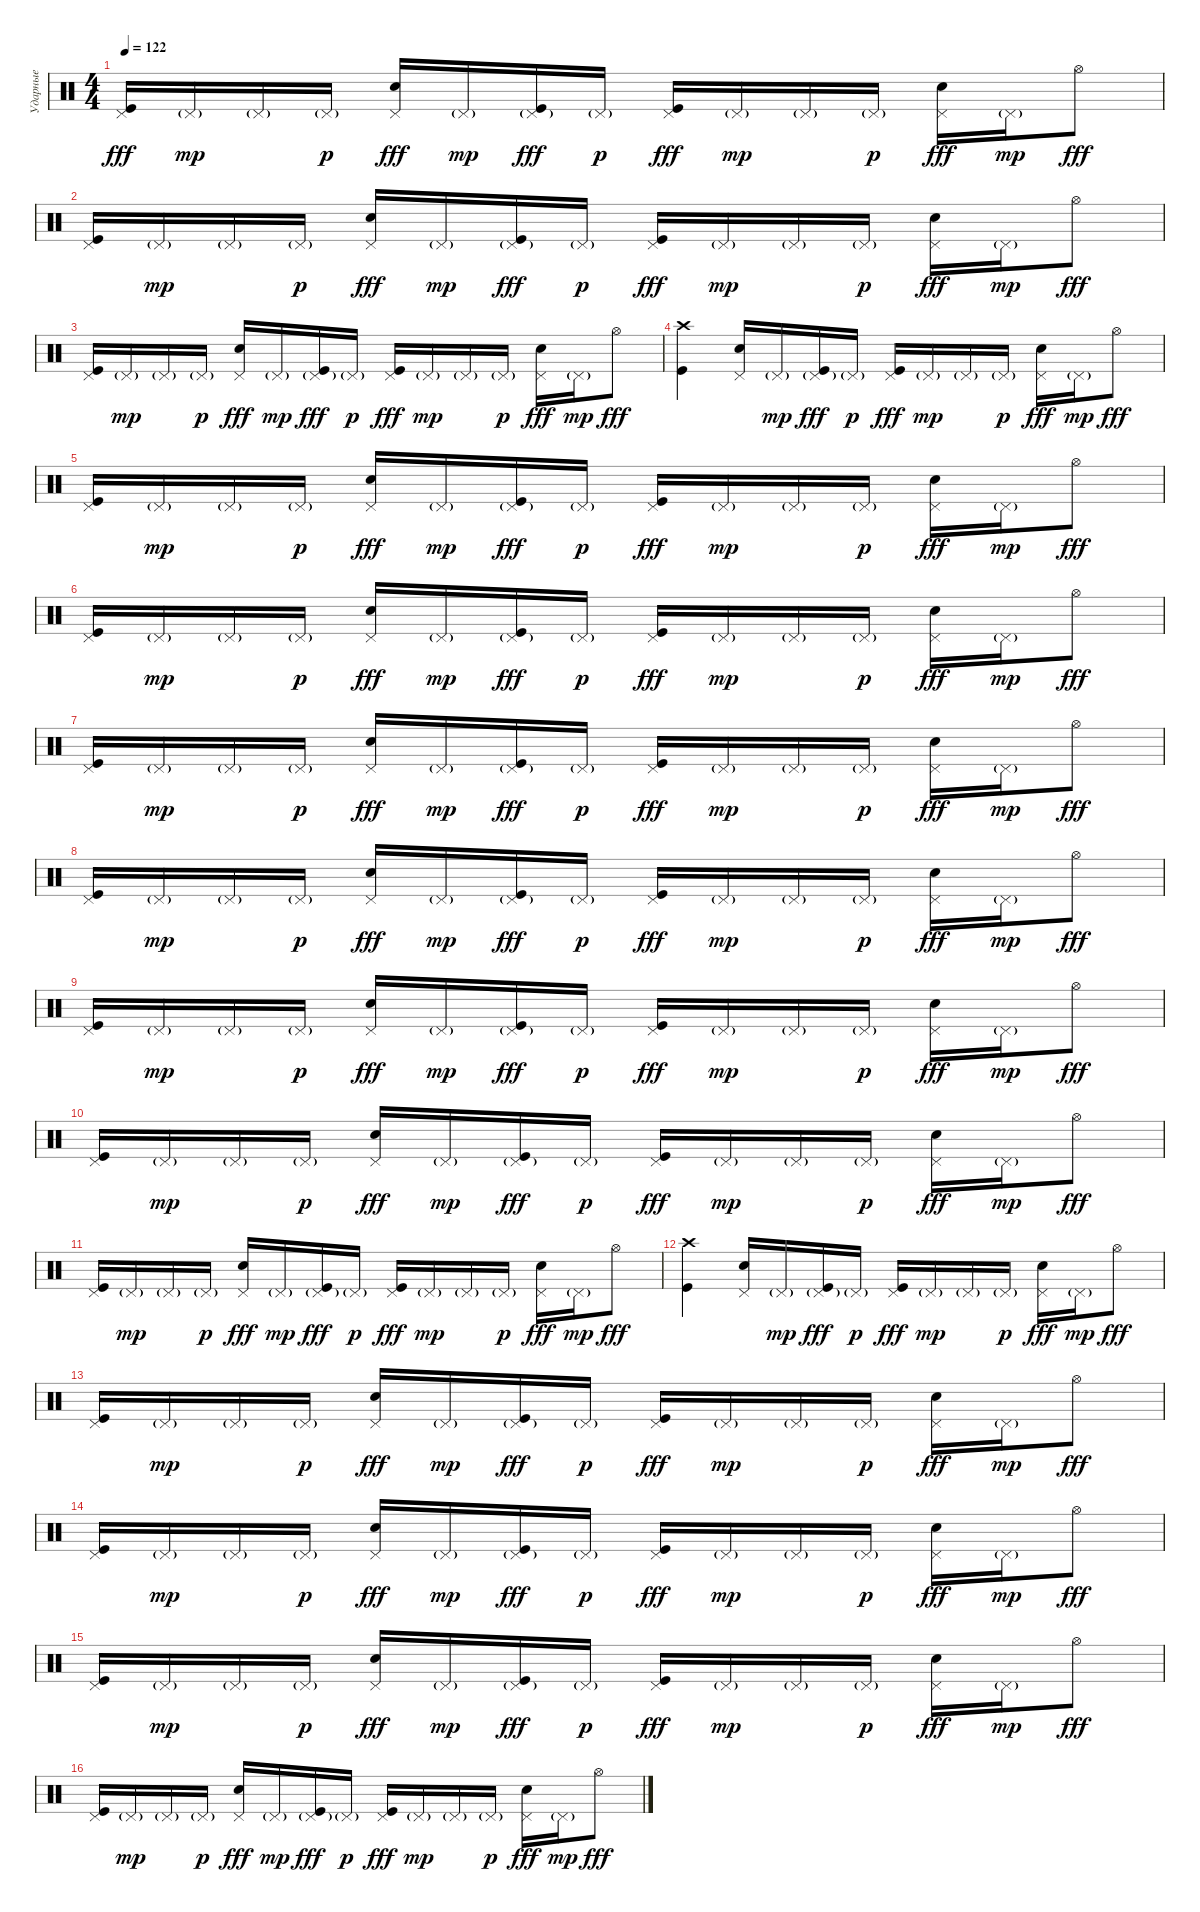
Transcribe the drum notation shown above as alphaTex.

\track ("Ударные" "Ударные") {instrument percussion}
\staff {score}
\articulation defaults
\ts (4 4)
\tempo 122
\clef neutral
\ks c
("Pedal Hi-Hat (hit)" "Kick (hit)").16{dy fff} "Pedal Hi-Hat (hit)"{g}.16{dy mp} "Pedal Hi-Hat (hit)"{g}.16 "Pedal Hi-Hat (hit)"{g}.16{dy p} ("Pedal Hi-Hat (hit)" "Electric Snare (hit)").16{dy fff} "Pedal Hi-Hat (hit)"{g}.16{dy mp} ("Pedal Hi-Hat (hit)"{g} "Kick (hit)").16{dy fff} "Pedal Hi-Hat (hit)"{g}.16{dy p} ("Pedal Hi-Hat (hit)" "Kick (hit)").16{dy fff} "Pedal Hi-Hat (hit)"{g}.16{dy mp} "Pedal Hi-Hat (hit)"{g}.16 "Pedal Hi-Hat (hit)"{g}.16{dy p} ("Pedal Hi-Hat (hit)" "Electric Snare (hit)").16{dy fff} "Pedal Hi-Hat (hit)"{g}.16{dy mp} "Hi-Hat (open)".8{dy fff} |
("Pedal Hi-Hat (hit)" "Kick (hit)").16 "Pedal Hi-Hat (hit)"{g}.16{dy mp} "Pedal Hi-Hat (hit)"{g}.16 "Pedal Hi-Hat (hit)"{g}.16{dy p} ("Pedal Hi-Hat (hit)" "Electric Snare (hit)").16{dy fff} "Pedal Hi-Hat (hit)"{g}.16{dy mp} ("Pedal Hi-Hat (hit)"{g} "Kick (hit)").16{dy fff} "Pedal Hi-Hat (hit)"{g}.16{dy p} ("Pedal Hi-Hat (hit)" "Kick (hit)").16{dy fff} "Pedal Hi-Hat (hit)"{g}.16{dy mp} "Pedal Hi-Hat (hit)"{g}.16 "Pedal Hi-Hat (hit)"{g}.16{dy p} ("Pedal Hi-Hat (hit)" "Electric Snare (hit)").16{dy fff} "Pedal Hi-Hat (hit)"{g}.16{dy mp} "Hi-Hat (open)".8{dy fff} |
("Pedal Hi-Hat (hit)" "Kick (hit)").16 "Pedal Hi-Hat (hit)"{g}.16{dy mp} "Pedal Hi-Hat (hit)"{g}.16 "Pedal Hi-Hat (hit)"{g}.16{dy p} ("Pedal Hi-Hat (hit)" "Electric Snare (hit)").16{dy fff} "Pedal Hi-Hat (hit)"{g}.16{dy mp} ("Pedal Hi-Hat (hit)"{g} "Kick (hit)").16{dy fff} "Pedal Hi-Hat (hit)"{g}.16{dy p} ("Pedal Hi-Hat (hit)" "Kick (hit)").16{dy fff} "Pedal Hi-Hat (hit)"{g}.16{dy mp} "Pedal Hi-Hat (hit)"{g}.16 "Pedal Hi-Hat (hit)"{g}.16{dy p} ("Pedal Hi-Hat (hit)" "Electric Snare (hit)").16{dy fff} "Pedal Hi-Hat (hit)"{g}.16{dy mp} "Hi-Hat (open)".8{dy fff} |
("Crash high (hit)" "Kick (hit)").4 ("Pedal Hi-Hat (hit)" "Electric Snare (hit)").16 "Pedal Hi-Hat (hit)"{g}.16{dy mp} ("Pedal Hi-Hat (hit)"{g} "Kick (hit)").16{dy fff} "Pedal Hi-Hat (hit)"{g}.16{dy p} ("Pedal Hi-Hat (hit)" "Kick (hit)").16{dy fff} "Pedal Hi-Hat (hit)"{g}.16{dy mp} "Pedal Hi-Hat (hit)"{g}.16 "Pedal Hi-Hat (hit)"{g}.16{dy p} ("Pedal Hi-Hat (hit)" "Electric Snare (hit)").16{dy fff} "Pedal Hi-Hat (hit)"{g}.16{dy mp} "Hi-Hat (open)".8{dy fff} |
("Pedal Hi-Hat (hit)" "Kick (hit)").16 "Pedal Hi-Hat (hit)"{g}.16{dy mp} "Pedal Hi-Hat (hit)"{g}.16 "Pedal Hi-Hat (hit)"{g}.16{dy p} ("Pedal Hi-Hat (hit)" "Electric Snare (hit)").16{dy fff} "Pedal Hi-Hat (hit)"{g}.16{dy mp} ("Pedal Hi-Hat (hit)"{g} "Kick (hit)").16{dy fff} "Pedal Hi-Hat (hit)"{g}.16{dy p} ("Pedal Hi-Hat (hit)" "Kick (hit)").16{dy fff} "Pedal Hi-Hat (hit)"{g}.16{dy mp} "Pedal Hi-Hat (hit)"{g}.16 "Pedal Hi-Hat (hit)"{g}.16{dy p} ("Pedal Hi-Hat (hit)" "Electric Snare (hit)").16{dy fff} "Pedal Hi-Hat (hit)"{g}.16{dy mp} "Hi-Hat (open)".8{dy fff} |
("Pedal Hi-Hat (hit)" "Kick (hit)").16 "Pedal Hi-Hat (hit)"{g}.16{dy mp} "Pedal Hi-Hat (hit)"{g}.16 "Pedal Hi-Hat (hit)"{g}.16{dy p} ("Pedal Hi-Hat (hit)" "Electric Snare (hit)").16{dy fff} "Pedal Hi-Hat (hit)"{g}.16{dy mp} ("Pedal Hi-Hat (hit)"{g} "Kick (hit)").16{dy fff} "Pedal Hi-Hat (hit)"{g}.16{dy p} ("Pedal Hi-Hat (hit)" "Kick (hit)").16{dy fff} "Pedal Hi-Hat (hit)"{g}.16{dy mp} "Pedal Hi-Hat (hit)"{g}.16 "Pedal Hi-Hat (hit)"{g}.16{dy p} ("Pedal Hi-Hat (hit)" "Electric Snare (hit)").16{dy fff} "Pedal Hi-Hat (hit)"{g}.16{dy mp} "Hi-Hat (open)".8{dy fff} |
("Pedal Hi-Hat (hit)" "Kick (hit)").16 "Pedal Hi-Hat (hit)"{g}.16{dy mp} "Pedal Hi-Hat (hit)"{g}.16 "Pedal Hi-Hat (hit)"{g}.16{dy p} ("Pedal Hi-Hat (hit)" "Electric Snare (hit)").16{dy fff} "Pedal Hi-Hat (hit)"{g}.16{dy mp} ("Pedal Hi-Hat (hit)"{g} "Kick (hit)").16{dy fff} "Pedal Hi-Hat (hit)"{g}.16{dy p} ("Pedal Hi-Hat (hit)" "Kick (hit)").16{dy fff} "Pedal Hi-Hat (hit)"{g}.16{dy mp} "Pedal Hi-Hat (hit)"{g}.16 "Pedal Hi-Hat (hit)"{g}.16{dy p} ("Pedal Hi-Hat (hit)" "Electric Snare (hit)").16{dy fff} "Pedal Hi-Hat (hit)"{g}.16{dy mp} "Hi-Hat (open)".8{dy fff} |
("Pedal Hi-Hat (hit)" "Kick (hit)").16 "Pedal Hi-Hat (hit)"{g}.16{dy mp} "Pedal Hi-Hat (hit)"{g}.16 "Pedal Hi-Hat (hit)"{g}.16{dy p} ("Pedal Hi-Hat (hit)" "Electric Snare (hit)").16{dy fff} "Pedal Hi-Hat (hit)"{g}.16{dy mp} ("Pedal Hi-Hat (hit)"{g} "Kick (hit)").16{dy fff} "Pedal Hi-Hat (hit)"{g}.16{dy p} ("Pedal Hi-Hat (hit)" "Kick (hit)").16{dy fff} "Pedal Hi-Hat (hit)"{g}.16{dy mp} "Pedal Hi-Hat (hit)"{g}.16 "Pedal Hi-Hat (hit)"{g}.16{dy p} ("Pedal Hi-Hat (hit)" "Electric Snare (hit)").16{dy fff} "Pedal Hi-Hat (hit)"{g}.16{dy mp} "Hi-Hat (open)".8{dy fff} |
("Pedal Hi-Hat (hit)" "Kick (hit)").16 "Pedal Hi-Hat (hit)"{g}.16{dy mp} "Pedal Hi-Hat (hit)"{g}.16 "Pedal Hi-Hat (hit)"{g}.16{dy p} ("Pedal Hi-Hat (hit)" "Electric Snare (hit)").16{dy fff} "Pedal Hi-Hat (hit)"{g}.16{dy mp} ("Pedal Hi-Hat (hit)"{g} "Kick (hit)").16{dy fff} "Pedal Hi-Hat (hit)"{g}.16{dy p} ("Pedal Hi-Hat (hit)" "Kick (hit)").16{dy fff} "Pedal Hi-Hat (hit)"{g}.16{dy mp} "Pedal Hi-Hat (hit)"{g}.16 "Pedal Hi-Hat (hit)"{g}.16{dy p} ("Pedal Hi-Hat (hit)" "Electric Snare (hit)").16{dy fff} "Pedal Hi-Hat (hit)"{g}.16{dy mp} "Hi-Hat (open)".8{dy fff} |
("Pedal Hi-Hat (hit)" "Kick (hit)").16 "Pedal Hi-Hat (hit)"{g}.16{dy mp} "Pedal Hi-Hat (hit)"{g}.16 "Pedal Hi-Hat (hit)"{g}.16{dy p} ("Pedal Hi-Hat (hit)" "Electric Snare (hit)").16{dy fff} "Pedal Hi-Hat (hit)"{g}.16{dy mp} ("Pedal Hi-Hat (hit)"{g} "Kick (hit)").16{dy fff} "Pedal Hi-Hat (hit)"{g}.16{dy p} ("Pedal Hi-Hat (hit)" "Kick (hit)").16{dy fff} "Pedal Hi-Hat (hit)"{g}.16{dy mp} "Pedal Hi-Hat (hit)"{g}.16 "Pedal Hi-Hat (hit)"{g}.16{dy p} ("Pedal Hi-Hat (hit)" "Electric Snare (hit)").16{dy fff} "Pedal Hi-Hat (hit)"{g}.16{dy mp} "Hi-Hat (open)".8{dy fff} |
("Pedal Hi-Hat (hit)" "Kick (hit)").16 "Pedal Hi-Hat (hit)"{g}.16{dy mp} "Pedal Hi-Hat (hit)"{g}.16 "Pedal Hi-Hat (hit)"{g}.16{dy p} ("Pedal Hi-Hat (hit)" "Electric Snare (hit)").16{dy fff} "Pedal Hi-Hat (hit)"{g}.16{dy mp} ("Pedal Hi-Hat (hit)"{g} "Kick (hit)").16{dy fff} "Pedal Hi-Hat (hit)"{g}.16{dy p} ("Pedal Hi-Hat (hit)" "Kick (hit)").16{dy fff} "Pedal Hi-Hat (hit)"{g}.16{dy mp} "Pedal Hi-Hat (hit)"{g}.16 "Pedal Hi-Hat (hit)"{g}.16{dy p} ("Pedal Hi-Hat (hit)" "Electric Snare (hit)").16{dy fff} "Pedal Hi-Hat (hit)"{g}.16{dy mp} "Hi-Hat (open)".8{dy fff} |
("Crash high (hit)" "Kick (hit)").4 ("Pedal Hi-Hat (hit)" "Electric Snare (hit)").16 "Pedal Hi-Hat (hit)"{g}.16{dy mp} ("Pedal Hi-Hat (hit)"{g} "Kick (hit)").16{dy fff} "Pedal Hi-Hat (hit)"{g}.16{dy p} ("Pedal Hi-Hat (hit)" "Kick (hit)").16{dy fff} "Pedal Hi-Hat (hit)"{g}.16{dy mp} "Pedal Hi-Hat (hit)"{g}.16 "Pedal Hi-Hat (hit)"{g}.16{dy p} ("Pedal Hi-Hat (hit)" "Electric Snare (hit)").16{dy fff} "Pedal Hi-Hat (hit)"{g}.16{dy mp} "Hi-Hat (open)".8{dy fff} |
("Pedal Hi-Hat (hit)" "Kick (hit)").16 "Pedal Hi-Hat (hit)"{g}.16{dy mp} "Pedal Hi-Hat (hit)"{g}.16 "Pedal Hi-Hat (hit)"{g}.16{dy p} ("Pedal Hi-Hat (hit)" "Electric Snare (hit)").16{dy fff} "Pedal Hi-Hat (hit)"{g}.16{dy mp} ("Pedal Hi-Hat (hit)"{g} "Kick (hit)").16{dy fff} "Pedal Hi-Hat (hit)"{g}.16{dy p} ("Pedal Hi-Hat (hit)" "Kick (hit)").16{dy fff} "Pedal Hi-Hat (hit)"{g}.16{dy mp} "Pedal Hi-Hat (hit)"{g}.16 "Pedal Hi-Hat (hit)"{g}.16{dy p} ("Pedal Hi-Hat (hit)" "Electric Snare (hit)").16{dy fff} "Pedal Hi-Hat (hit)"{g}.16{dy mp} "Hi-Hat (open)".8{dy fff} |
("Pedal Hi-Hat (hit)" "Kick (hit)").16 "Pedal Hi-Hat (hit)"{g}.16{dy mp} "Pedal Hi-Hat (hit)"{g}.16 "Pedal Hi-Hat (hit)"{g}.16{dy p} ("Pedal Hi-Hat (hit)" "Electric Snare (hit)").16{dy fff} "Pedal Hi-Hat (hit)"{g}.16{dy mp} ("Pedal Hi-Hat (hit)"{g} "Kick (hit)").16{dy fff} "Pedal Hi-Hat (hit)"{g}.16{dy p} ("Pedal Hi-Hat (hit)" "Kick (hit)").16{dy fff} "Pedal Hi-Hat (hit)"{g}.16{dy mp} "Pedal Hi-Hat (hit)"{g}.16 "Pedal Hi-Hat (hit)"{g}.16{dy p} ("Pedal Hi-Hat (hit)" "Electric Snare (hit)").16{dy fff} "Pedal Hi-Hat (hit)"{g}.16{dy mp} "Hi-Hat (open)".8{dy fff} |
("Pedal Hi-Hat (hit)" "Kick (hit)").16 "Pedal Hi-Hat (hit)"{g}.16{dy mp} "Pedal Hi-Hat (hit)"{g}.16 "Pedal Hi-Hat (hit)"{g}.16{dy p} ("Pedal Hi-Hat (hit)" "Electric Snare (hit)").16{dy fff} "Pedal Hi-Hat (hit)"{g}.16{dy mp} ("Pedal Hi-Hat (hit)"{g} "Kick (hit)").16{dy fff} "Pedal Hi-Hat (hit)"{g}.16{dy p} ("Pedal Hi-Hat (hit)" "Kick (hit)").16{dy fff} "Pedal Hi-Hat (hit)"{g}.16{dy mp} "Pedal Hi-Hat (hit)"{g}.16 "Pedal Hi-Hat (hit)"{g}.16{dy p} ("Pedal Hi-Hat (hit)" "Electric Snare (hit)").16{dy fff} "Pedal Hi-Hat (hit)"{g}.16{dy mp} "Hi-Hat (open)".8{dy fff} |
("Pedal Hi-Hat (hit)" "Kick (hit)").16 "Pedal Hi-Hat (hit)"{g}.16{dy mp} "Pedal Hi-Hat (hit)"{g}.16 "Pedal Hi-Hat (hit)"{g}.16{dy p} ("Pedal Hi-Hat (hit)" "Electric Snare (hit)").16{dy fff} "Pedal Hi-Hat (hit)"{g}.16{dy mp} ("Pedal Hi-Hat (hit)"{g} "Kick (hit)").16{dy fff} "Pedal Hi-Hat (hit)"{g}.16{dy p} ("Pedal Hi-Hat (hit)" "Kick (hit)").16{dy fff} "Pedal Hi-Hat (hit)"{g}.16{dy mp} "Pedal Hi-Hat (hit)"{g}.16 "Pedal Hi-Hat (hit)"{g}.16{dy p} ("Pedal Hi-Hat (hit)" "Electric Snare (hit)").16{dy fff} "Pedal Hi-Hat (hit)"{g}.16{dy mp} "Hi-Hat (open)".8{dy fff}
